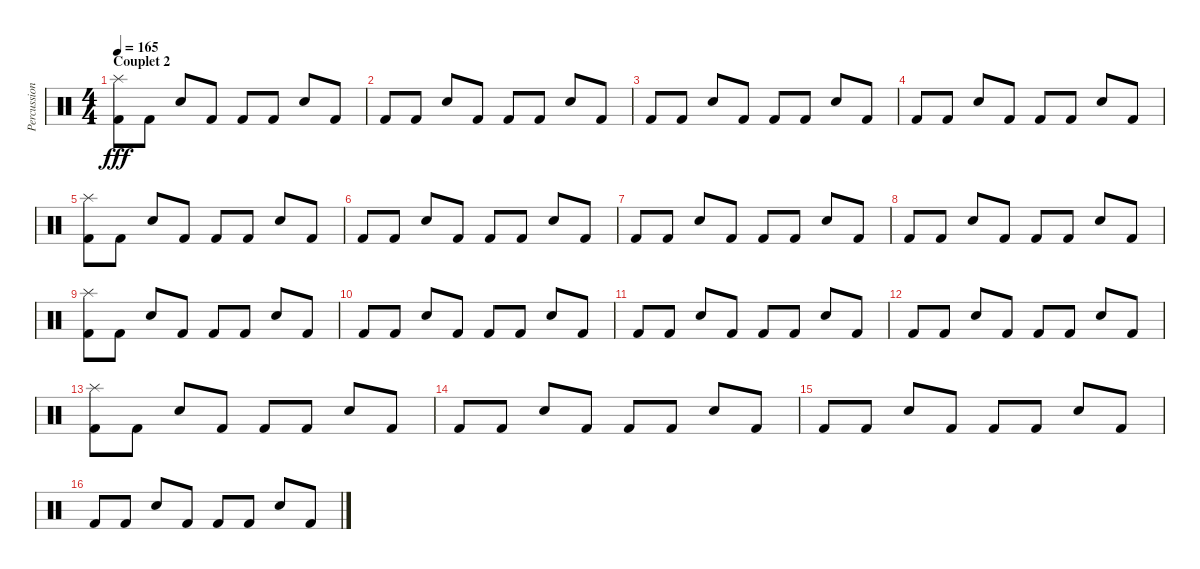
\track ("Percussions" "Percussion") {instrument percussion}
\staff {score}
\articulation defaults
\ts (4 4)
\section ("" "Couplet 2")
\tempo 165
\clef neutral
\ks c
("Splash (hit)" "Kick (hit) 2").8{dy fff} "Kick (hit) 2".8 "Electric Snare (hit)".8 "Kick (hit) 2".8 "Kick (hit) 2".8 "Kick (hit) 2".8 "Electric Snare (hit)".8 "Kick (hit) 2".8 |
"Kick (hit) 2".8 "Kick (hit) 2".8 "Electric Snare (hit)".8 "Kick (hit) 2".8 "Kick (hit) 2".8 "Kick (hit) 2".8 "Electric Snare (hit)".8 "Kick (hit) 2".8 |
"Kick (hit) 2".8 "Kick (hit) 2".8 "Electric Snare (hit)".8 "Kick (hit) 2".8 "Kick (hit) 2".8 "Kick (hit) 2".8 "Electric Snare (hit)".8 "Kick (hit) 2".8 |
"Kick (hit) 2".8 "Kick (hit) 2".8 "Electric Snare (hit)".8 "Kick (hit) 2".8 "Kick (hit) 2".8 "Kick (hit) 2".8 "Electric Snare (hit)".8 "Kick (hit) 2".8 |
("Splash (hit)" "Kick (hit) 2").8 "Kick (hit) 2".8 "Electric Snare (hit)".8 "Kick (hit) 2".8 "Kick (hit) 2".8 "Kick (hit) 2".8 "Electric Snare (hit)".8 "Kick (hit) 2".8 |
"Kick (hit) 2".8 "Kick (hit) 2".8 "Electric Snare (hit)".8 "Kick (hit) 2".8 "Kick (hit) 2".8 "Kick (hit) 2".8 "Electric Snare (hit)".8 "Kick (hit) 2".8 |
"Kick (hit) 2".8 "Kick (hit) 2".8 "Electric Snare (hit)".8 "Kick (hit) 2".8 "Kick (hit) 2".8 "Kick (hit) 2".8 "Electric Snare (hit)".8 "Kick (hit) 2".8 |
"Kick (hit) 2".8 "Kick (hit) 2".8 "Electric Snare (hit)".8 "Kick (hit) 2".8 "Kick (hit) 2".8 "Kick (hit) 2".8 "Electric Snare (hit)".8 "Kick (hit) 2".8 |
("Splash (hit)" "Kick (hit) 2").8 "Kick (hit) 2".8 "Electric Snare (hit)".8 "Kick (hit) 2".8 "Kick (hit) 2".8 "Kick (hit) 2".8 "Electric Snare (hit)".8 "Kick (hit) 2".8 |
"Kick (hit) 2".8 "Kick (hit) 2".8 "Electric Snare (hit)".8 "Kick (hit) 2".8 "Kick (hit) 2".8 "Kick (hit) 2".8 "Electric Snare (hit)".8 "Kick (hit) 2".8 |
"Kick (hit) 2".8 "Kick (hit) 2".8 "Electric Snare (hit)".8 "Kick (hit) 2".8 "Kick (hit) 2".8 "Kick (hit) 2".8 "Electric Snare (hit)".8 "Kick (hit) 2".8 |
"Kick (hit) 2".8 "Kick (hit) 2".8 "Electric Snare (hit)".8 "Kick (hit) 2".8 "Kick (hit) 2".8 "Kick (hit) 2".8 "Electric Snare (hit)".8 "Kick (hit) 2".8 |
("Splash (hit)" "Kick (hit) 2").8 "Kick (hit) 2".8 "Electric Snare (hit)".8 "Kick (hit) 2".8 "Kick (hit) 2".8 "Kick (hit) 2".8 "Electric Snare (hit)".8 "Kick (hit) 2".8 |
"Kick (hit) 2".8 "Kick (hit) 2".8 "Electric Snare (hit)".8 "Kick (hit) 2".8 "Kick (hit) 2".8 "Kick (hit) 2".8 "Electric Snare (hit)".8 "Kick (hit) 2".8 |
"Kick (hit) 2".8 "Kick (hit) 2".8 "Electric Snare (hit)".8 "Kick (hit) 2".8 "Kick (hit) 2".8 "Kick (hit) 2".8 "Electric Snare (hit)".8 "Kick (hit) 2".8 |
"Kick (hit) 2".8 "Kick (hit) 2".8 "Electric Snare (hit)".8 "Kick (hit) 2".8 "Kick (hit) 2".8 "Kick (hit) 2".8 "Electric Snare (hit)".8 "Kick (hit) 2".8
